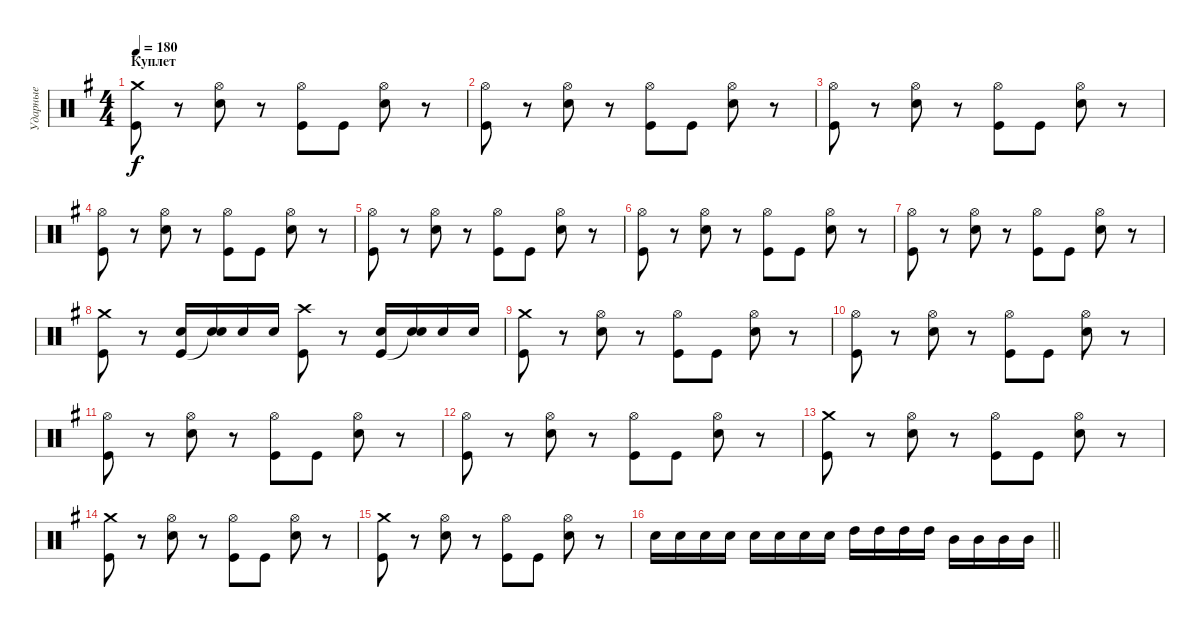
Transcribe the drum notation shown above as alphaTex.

\track ("Ударные" "Ударные") {instrument percussion}
\staff {score}
\articulation defaults
\ts (4 4)
\section ("" "Куплет")
\tempo 180
\clef neutral
\ks g
("Crash medium (hit)" "Kick (hit)").8{dy f} r.8 ("Hi-Hat (open)" "Electric Snare (hit)").8 r.8 ("Hi-Hat (open)" "Kick (hit)").8 "Kick (hit)".8 ("Hi-Hat (open)" "Electric Snare (hit)").8 r.8 |
("Hi-Hat (open)" "Kick (hit)").8 r.8 ("Hi-Hat (open)" "Electric Snare (hit)").8 r.8 ("Hi-Hat (open)" "Kick (hit)").8 "Kick (hit)".8 ("Hi-Hat (open)" "Electric Snare (hit)").8 r.8 |
("Hi-Hat (open)" "Kick (hit)").8 r.8 ("Hi-Hat (open)" "Electric Snare (hit)").8 r.8 ("Hi-Hat (open)" "Kick (hit)").8 "Kick (hit)".8 ("Hi-Hat (open)" "Electric Snare (hit)").8 r.8 |
("Hi-Hat (open)" "Kick (hit)").8 r.8 ("Hi-Hat (open)" "Electric Snare (hit)").8 r.8 ("Hi-Hat (open)" "Kick (hit)").8 "Kick (hit)".8 ("Hi-Hat (open)" "Electric Snare (hit)").8 r.8 |
("Hi-Hat (open)" "Kick (hit)").8 r.8 ("Hi-Hat (open)" "Electric Snare (hit)").8 r.8 ("Hi-Hat (open)" "Kick (hit)").8 "Kick (hit)".8 ("Hi-Hat (open)" "Electric Snare (hit)").8 r.8 |
("Hi-Hat (open)" "Kick (hit)").8 r.8 ("Hi-Hat (open)" "Electric Snare (hit)").8 r.8 ("Hi-Hat (open)" "Kick (hit)").8 "Kick (hit)".8 ("Hi-Hat (open)" "Electric Snare (hit)").8 r.8 |
("Hi-Hat (open)" "Kick (hit)").8 r.8 ("Hi-Hat (open)" "Electric Snare (hit)").8 r.8 ("Hi-Hat (open)" "Kick (hit)").8 "Kick (hit)".8 ("Hi-Hat (open)" "Electric Snare (hit)").8 r.8 |
("Crash medium (hit)" "Kick (hit)").8 r.8 ("Electric Snare (hit)" "Kick (hit)").16 ("Electric Snare (hit)" "Snare (hit)"{t}).16 "Electric Snare (hit)".16 "Electric Snare (hit)".16 ("Crash high (hit)" "Kick (hit)").8 r.8 ("Electric Snare (hit)" "Kick (hit)").16 ("Electric Snare (hit)" "Snare (hit)"{t}).16 "Electric Snare (hit)".16 "Electric Snare (hit)".16 |
("Crash medium (hit)" "Kick (hit)").8 r.8 ("Hi-Hat (open)" "Electric Snare (hit)").8 r.8 ("Hi-Hat (open)" "Kick (hit)").8 "Kick (hit)".8 ("Hi-Hat (open)" "Electric Snare (hit)").8 r.8 |
("Hi-Hat (open)" "Kick (hit)").8 r.8 ("Hi-Hat (open)" "Electric Snare (hit)").8 r.8 ("Hi-Hat (open)" "Kick (hit)").8 "Kick (hit)".8 ("Hi-Hat (open)" "Electric Snare (hit)").8 r.8 |
("Hi-Hat (open)" "Kick (hit)").8 r.8 ("Hi-Hat (open)" "Electric Snare (hit)").8 r.8 ("Hi-Hat (open)" "Kick (hit)").8 "Kick (hit)".8 ("Hi-Hat (open)" "Electric Snare (hit)").8 r.8 |
("Hi-Hat (open)" "Kick (hit)").8 r.8 ("Hi-Hat (open)" "Electric Snare (hit)").8 r.8 ("Hi-Hat (open)" "Kick (hit)").8 "Kick (hit)".8 ("Hi-Hat (open)" "Electric Snare (hit)").8 r.8 |
("Crash medium (hit)" "Kick (hit)").8 r.8 ("Hi-Hat (open)" "Electric Snare (hit)").8 r.8 ("Hi-Hat (open)" "Kick (hit)").8 "Kick (hit)".8 ("Hi-Hat (open)" "Electric Snare (hit)").8 r.8 |
("Crash medium (hit)" "Kick (hit)").8 r.8 ("Hi-Hat (open)" "Electric Snare (hit)").8 r.8 ("Hi-Hat (open)" "Kick (hit)").8 "Kick (hit)".8 ("Hi-Hat (open)" "Electric Snare (hit)").8 r.8 |
("Crash medium (hit)" "Kick (hit)").8 r.8 ("Hi-Hat (open)" "Electric Snare (hit)").8 r.8 ("Hi-Hat (open)" "Kick (hit)").8 "Kick (hit)".8 ("Hi-Hat (open)" "Electric Snare (hit)").8 r.8 |
\barLineRight lightlight "Electric Snare (hit)".16 "Electric Snare (hit)".16 "Electric Snare (hit)".16 "Electric Snare (hit)".16 "Electric Snare (hit)".16 "Electric Snare (hit)".16 "Electric Snare (hit)".16 "Electric Snare (hit)".16 "High Tom (hit)".16 "High Tom (hit)".16 "High Tom (hit)".16 "High Tom (hit)".16 "Mid Tom (hit)".16 "Mid Tom (hit)".16 "Mid Tom (hit)".16 "Mid Tom (hit)".16
